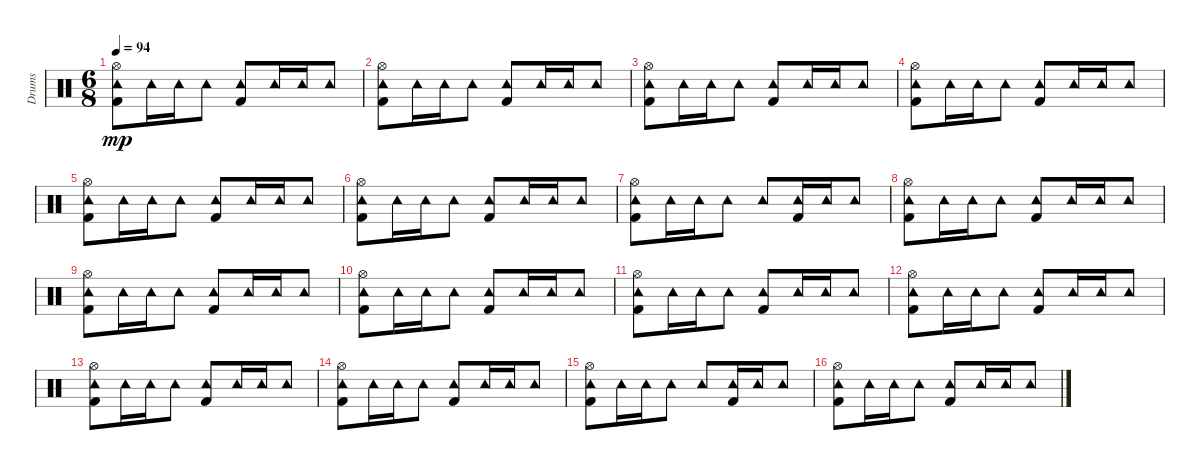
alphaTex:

\track ("Drums" "Drums") {instrument percussion}
\staff {score}
\articulation defaults
\ts (6 8)
\tempo 94
\clef neutral
\ks c
("Tambourine (hit)" "Kick (hit) 2" "Hi-Hat (open)").8{dy mp} "Tambourine (hit)".16 "Tambourine (hit)".16 "Tambourine (hit)".8 ("Tambourine (hit)" "Kick (hit) 2").8 "Tambourine (hit)".16 "Tambourine (hit)".16 "Tambourine (hit)".8 |
("Tambourine (hit)" "Kick (hit) 2" "Hi-Hat (open)").8 "Tambourine (hit)".16 "Tambourine (hit)".16 "Tambourine (hit)".8 ("Tambourine (hit)" "Kick (hit) 2").8 "Tambourine (hit)".16 "Tambourine (hit)".16 "Tambourine (hit)".8 |
("Tambourine (hit)" "Kick (hit) 2" "Hi-Hat (open)").8 "Tambourine (hit)".16 "Tambourine (hit)".16 "Tambourine (hit)".8 ("Tambourine (hit)" "Kick (hit) 2").8 "Tambourine (hit)".16 "Tambourine (hit)".16 "Tambourine (hit)".8 |
("Tambourine (hit)" "Kick (hit) 2" "Hi-Hat (open)").8 "Tambourine (hit)".16 "Tambourine (hit)".16 "Tambourine (hit)".8 ("Tambourine (hit)" "Kick (hit) 2").8 "Tambourine (hit)".16 "Tambourine (hit)".16 "Tambourine (hit)".8 |
("Tambourine (hit)" "Kick (hit) 2" "Hi-Hat (open)").8 "Tambourine (hit)".16 "Tambourine (hit)".16 "Tambourine (hit)".8 ("Tambourine (hit)" "Kick (hit) 2").8 "Tambourine (hit)".16 "Tambourine (hit)".16 "Tambourine (hit)".8 |
("Tambourine (hit)" "Kick (hit) 2" "Hi-Hat (open)").8 "Tambourine (hit)".16 "Tambourine (hit)".16 "Tambourine (hit)".8 ("Tambourine (hit)" "Kick (hit) 2").8 "Tambourine (hit)".16 "Tambourine (hit)".16 "Tambourine (hit)".8 |
("Tambourine (hit)" "Kick (hit) 2" "Hi-Hat (open)").8 "Tambourine (hit)".16 "Tambourine (hit)".16 "Tambourine (hit)".8 "Tambourine (hit)".8 ("Tambourine (hit)" "Kick (hit) 2").16 "Tambourine (hit)".16 "Tambourine (hit)".8 |
("Tambourine (hit)" "Kick (hit) 2" "Hi-Hat (open)").8 "Tambourine (hit)".16 "Tambourine (hit)".16 "Tambourine (hit)".8 ("Tambourine (hit)" "Kick (hit) 2").8 "Tambourine (hit)".16 "Tambourine (hit)".16 "Tambourine (hit)".8 |
("Tambourine (hit)" "Kick (hit) 2" "Hi-Hat (open)").8 "Tambourine (hit)".16 "Tambourine (hit)".16 "Tambourine (hit)".8 ("Tambourine (hit)" "Kick (hit) 2").8 "Tambourine (hit)".16 "Tambourine (hit)".16 "Tambourine (hit)".8 |
("Tambourine (hit)" "Kick (hit) 2" "Hi-Hat (open)").8 "Tambourine (hit)".16 "Tambourine (hit)".16 "Tambourine (hit)".8 ("Tambourine (hit)" "Kick (hit) 2").8 "Tambourine (hit)".16 "Tambourine (hit)".16 "Tambourine (hit)".8 |
("Tambourine (hit)" "Kick (hit) 2" "Hi-Hat (open)").8 "Tambourine (hit)".16 "Tambourine (hit)".16 "Tambourine (hit)".8 ("Tambourine (hit)" "Kick (hit) 2").8 "Tambourine (hit)".16 "Tambourine (hit)".16 "Tambourine (hit)".8 |
("Tambourine (hit)" "Kick (hit) 2" "Hi-Hat (open)").8 "Tambourine (hit)".16 "Tambourine (hit)".16 "Tambourine (hit)".8 ("Tambourine (hit)" "Kick (hit) 2").8 "Tambourine (hit)".16 "Tambourine (hit)".16 "Tambourine (hit)".8 |
("Tambourine (hit)" "Kick (hit) 2" "Hi-Hat (open)").8 "Tambourine (hit)".16 "Tambourine (hit)".16 "Tambourine (hit)".8 ("Tambourine (hit)" "Kick (hit) 2").8 "Tambourine (hit)".16 "Tambourine (hit)".16 "Tambourine (hit)".8 |
("Tambourine (hit)" "Kick (hit) 2" "Hi-Hat (open)").8 "Tambourine (hit)".16 "Tambourine (hit)".16 "Tambourine (hit)".8 ("Tambourine (hit)" "Kick (hit) 2").8 "Tambourine (hit)".16 "Tambourine (hit)".16 "Tambourine (hit)".8 |
("Tambourine (hit)" "Kick (hit) 2" "Hi-Hat (open)").8 "Tambourine (hit)".16 "Tambourine (hit)".16 "Tambourine (hit)".8 "Tambourine (hit)".8 ("Tambourine (hit)" "Kick (hit) 2").16 "Tambourine (hit)".16 "Tambourine (hit)".8 |
("Tambourine (hit)" "Kick (hit) 2" "Hi-Hat (open)").8 "Tambourine (hit)".16 "Tambourine (hit)".16 "Tambourine (hit)".8 ("Tambourine (hit)" "Kick (hit) 2").8 "Tambourine (hit)".16 "Tambourine (hit)".16 "Tambourine (hit)".8
